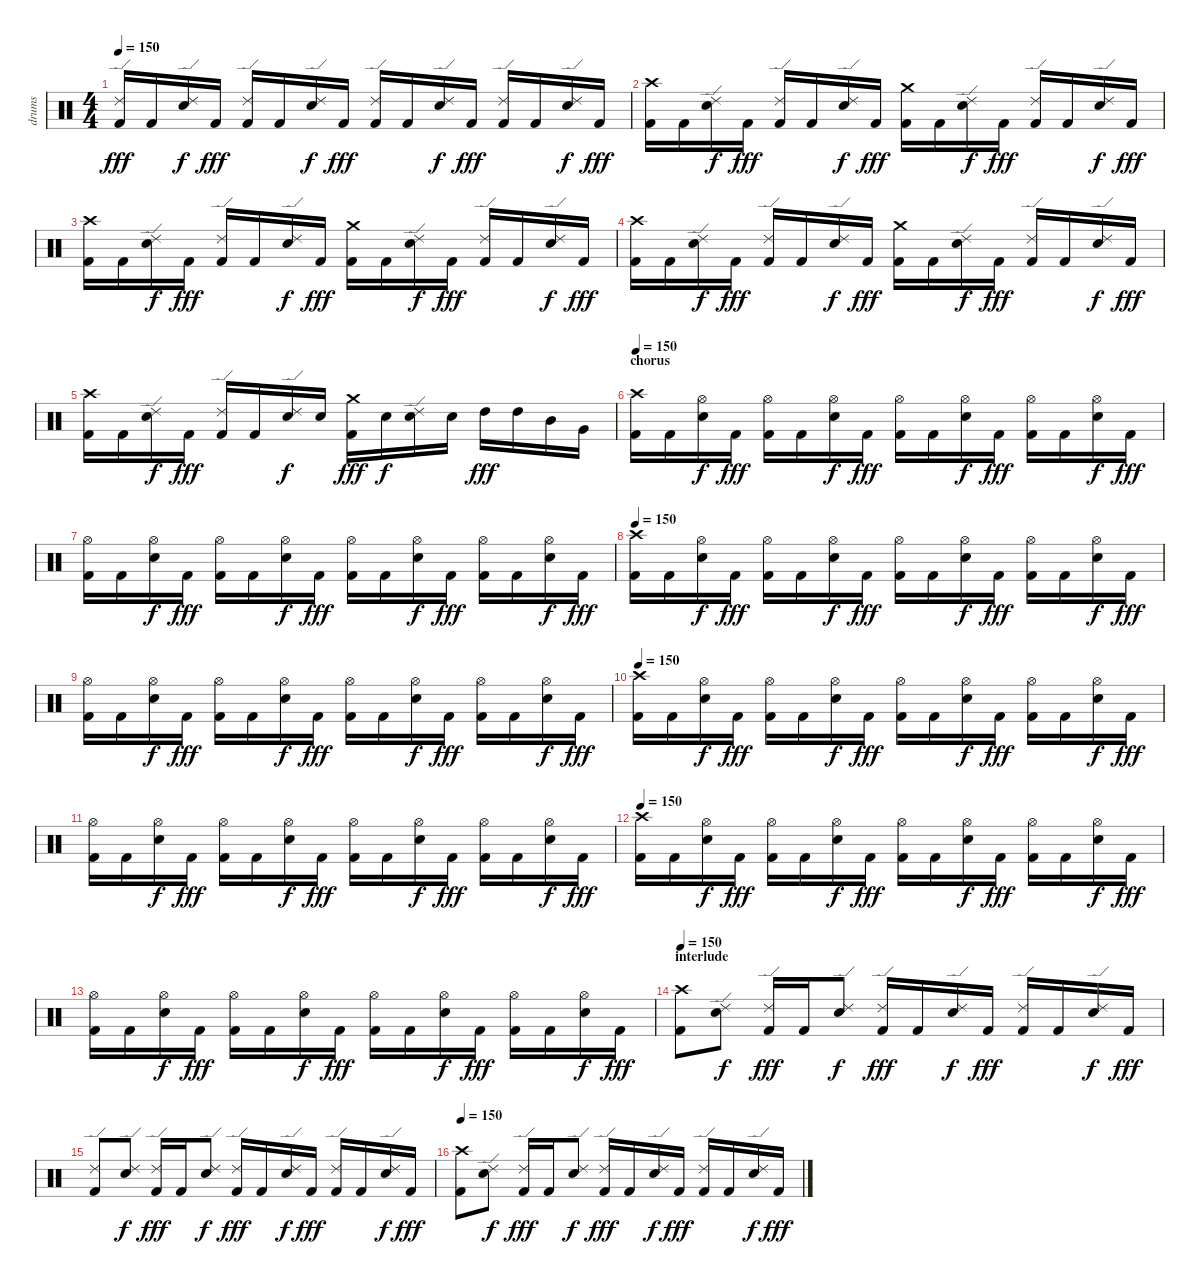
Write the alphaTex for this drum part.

\track ("drums" "drums") {instrument percussion}
\staff {score}
\articulation defaults
\ts (4 4)
\tempo 150
\clef neutral
\ks c
("Ride (edge) 2" "Kick (hit) 2").16{dy fff} "Kick (hit) 2".16 ("Ride (edge) 2" "Snare (hit) 2").16{dy f} "Kick (hit) 2".16{dy fff} ("Ride (edge) 2" "Kick (hit) 2").16 "Kick (hit) 2".16 ("Ride (edge) 2" "Snare (hit) 2").16{dy f} "Kick (hit) 2".16{dy fff} ("Ride (edge) 2" "Kick (hit) 2").16 "Kick (hit) 2".16 ("Ride (edge) 2" "Snare (hit) 2").16{dy f} "Kick (hit) 2".16{dy fff} ("Ride (edge) 2" "Kick (hit) 2").16 "Kick (hit) 2".16 ("Ride (edge) 2" "Snare (hit) 2").16{dy f} "Kick (hit) 2".16{dy fff} |
("Crash high (hit)" "Kick (hit) 2").16 "Kick (hit) 2".16 ("Ride (edge) 2" "Snare (hit) 2").16{dy f} "Kick (hit) 2".16{dy fff} ("Ride (edge) 2" "Kick (hit) 2").16 "Kick (hit) 2".16 ("Ride (edge) 2" "Snare (hit) 2").16{dy f} "Kick (hit) 2".16{dy fff} ("Crash medium (hit)" "Kick (hit) 2").16 "Kick (hit) 2".16 ("Ride (edge) 2" "Snare (hit) 2").16{dy f} "Kick (hit) 2".16{dy fff} ("Ride (edge) 2" "Kick (hit) 2").16 "Kick (hit) 2".16 ("Ride (edge) 2" "Snare (hit) 2").16{dy f} "Kick (hit) 2".16{dy fff} |
("Crash high (hit)" "Kick (hit) 2").16 "Kick (hit) 2".16 ("Ride (edge) 2" "Snare (hit) 2").16{dy f} "Kick (hit) 2".16{dy fff} ("Ride (edge) 2" "Kick (hit) 2").16 "Kick (hit) 2".16 ("Ride (edge) 2" "Snare (hit) 2").16{dy f} "Kick (hit) 2".16{dy fff} ("Crash medium (hit)" "Kick (hit) 2").16 "Kick (hit) 2".16 ("Ride (edge) 2" "Snare (hit) 2").16{dy f} "Kick (hit) 2".16{dy fff} ("Ride (edge) 2" "Kick (hit) 2").16 "Kick (hit) 2".16 ("Ride (edge) 2" "Snare (hit) 2").16{dy f} "Kick (hit) 2".16{dy fff} |
("Crash high (hit)" "Kick (hit) 2").16 "Kick (hit) 2".16 ("Ride (edge) 2" "Snare (hit) 2").16{dy f} "Kick (hit) 2".16{dy fff} ("Ride (edge) 2" "Kick (hit) 2").16 "Kick (hit) 2".16 ("Ride (edge) 2" "Snare (hit) 2").16{dy f} "Kick (hit) 2".16{dy fff} ("Crash medium (hit)" "Kick (hit) 2").16 "Kick (hit) 2".16 ("Ride (edge) 2" "Snare (hit) 2").16{dy f} "Kick (hit) 2".16{dy fff} ("Ride (edge) 2" "Kick (hit) 2").16 "Kick (hit) 2".16 ("Ride (edge) 2" "Snare (hit) 2").16{dy f} "Kick (hit) 2".16{dy fff} |
("Crash high (hit)" "Kick (hit) 2").16 "Kick (hit) 2".16 ("Ride (edge) 2" "Snare (hit) 2").16{dy f} "Kick (hit) 2".16{dy fff} ("Ride (edge) 2" "Kick (hit) 2").16 "Kick (hit) 2".16 ("Ride (edge) 2" "Snare (hit) 2").16{dy f} "Snare (hit) 2".16 ("Crash medium (hit)" "Kick (hit) 2").16{dy fff} "Snare (hit) 2".16{dy f} ("Ride (edge) 2" "Snare (hit) 2").16 "Snare (hit) 2".16 "High Tom (hit)".16{dy fff} "High Tom (hit)".16 "Mid Tom (hit)".16 "Very Low Tom (hit)".16 |
\section ("" "chorus")
\tempo 150
("Crash high (hit)" "Kick (hit) 2").16 "Kick (hit) 2".16 ("Hi-Hat (open)" "Snare (hit) 2").16{dy f} "Kick (hit) 2".16{dy fff} ("Hi-Hat (open)" "Kick (hit) 2").16 "Kick (hit) 2".16 ("Hi-Hat (open)" "Snare (hit) 2").16{dy f} "Kick (hit) 2".16{dy fff} ("Hi-Hat (open)" "Kick (hit) 2").16 "Kick (hit) 2".16 ("Hi-Hat (open)" "Snare (hit) 2").16{dy f} "Kick (hit) 2".16{dy fff} ("Hi-Hat (open)" "Kick (hit) 2").16 "Kick (hit) 2".16 ("Hi-Hat (open)" "Snare (hit) 2").16{dy f} "Kick (hit) 2".16{dy fff} |
("Hi-Hat (open)" "Kick (hit) 2").16 "Kick (hit) 2".16 ("Hi-Hat (open)" "Snare (hit) 2").16{dy f} "Kick (hit) 2".16{dy fff} ("Hi-Hat (open)" "Kick (hit) 2").16 "Kick (hit) 2".16 ("Hi-Hat (open)" "Snare (hit) 2").16{dy f} "Kick (hit) 2".16{dy fff} ("Hi-Hat (open)" "Kick (hit) 2").16 "Kick (hit) 2".16 ("Hi-Hat (open)" "Snare (hit) 2").16{dy f} "Kick (hit) 2".16{dy fff} ("Hi-Hat (open)" "Kick (hit) 2").16 "Kick (hit) 2".16 ("Hi-Hat (open)" "Snare (hit) 2").16{dy f} "Kick (hit) 2".16{dy fff} |
\tempo 150
("Crash high (hit)" "Kick (hit) 2").16 "Kick (hit) 2".16 ("Hi-Hat (open)" "Snare (hit) 2").16{dy f} "Kick (hit) 2".16{dy fff} ("Hi-Hat (open)" "Kick (hit) 2").16 "Kick (hit) 2".16 ("Hi-Hat (open)" "Snare (hit) 2").16{dy f} "Kick (hit) 2".16{dy fff} ("Hi-Hat (open)" "Kick (hit) 2").16 "Kick (hit) 2".16 ("Hi-Hat (open)" "Snare (hit) 2").16{dy f} "Kick (hit) 2".16{dy fff} ("Hi-Hat (open)" "Kick (hit) 2").16 "Kick (hit) 2".16 ("Hi-Hat (open)" "Snare (hit) 2").16{dy f} "Kick (hit) 2".16{dy fff} |
("Hi-Hat (open)" "Kick (hit) 2").16 "Kick (hit) 2".16 ("Hi-Hat (open)" "Snare (hit) 2").16{dy f} "Kick (hit) 2".16{dy fff} ("Hi-Hat (open)" "Kick (hit) 2").16 "Kick (hit) 2".16 ("Hi-Hat (open)" "Snare (hit) 2").16{dy f} "Kick (hit) 2".16{dy fff} ("Hi-Hat (open)" "Kick (hit) 2").16 "Kick (hit) 2".16 ("Hi-Hat (open)" "Snare (hit) 2").16{dy f} "Kick (hit) 2".16{dy fff} ("Hi-Hat (open)" "Kick (hit) 2").16 "Kick (hit) 2".16 ("Hi-Hat (open)" "Snare (hit) 2").16{dy f} "Kick (hit) 2".16{dy fff} |
\tempo 150
("Crash high (hit)" "Kick (hit) 2").16 "Kick (hit) 2".16 ("Hi-Hat (open)" "Snare (hit) 2").16{dy f} "Kick (hit) 2".16{dy fff} ("Hi-Hat (open)" "Kick (hit) 2").16 "Kick (hit) 2".16 ("Hi-Hat (open)" "Snare (hit) 2").16{dy f} "Kick (hit) 2".16{dy fff} ("Hi-Hat (open)" "Kick (hit) 2").16 "Kick (hit) 2".16 ("Hi-Hat (open)" "Snare (hit) 2").16{dy f} "Kick (hit) 2".16{dy fff} ("Hi-Hat (open)" "Kick (hit) 2").16 "Kick (hit) 2".16 ("Hi-Hat (open)" "Snare (hit) 2").16{dy f} "Kick (hit) 2".16{dy fff} |
("Hi-Hat (open)" "Kick (hit) 2").16 "Kick (hit) 2".16 ("Hi-Hat (open)" "Snare (hit) 2").16{dy f} "Kick (hit) 2".16{dy fff} ("Hi-Hat (open)" "Kick (hit) 2").16 "Kick (hit) 2".16 ("Hi-Hat (open)" "Snare (hit) 2").16{dy f} "Kick (hit) 2".16{dy fff} ("Hi-Hat (open)" "Kick (hit) 2").16 "Kick (hit) 2".16 ("Hi-Hat (open)" "Snare (hit) 2").16{dy f} "Kick (hit) 2".16{dy fff} ("Hi-Hat (open)" "Kick (hit) 2").16 "Kick (hit) 2".16 ("Hi-Hat (open)" "Snare (hit) 2").16{dy f} "Kick (hit) 2".16{dy fff} |
\tempo 150
("Crash high (hit)" "Kick (hit) 2").16 "Kick (hit) 2".16 ("Hi-Hat (open)" "Snare (hit) 2").16{dy f} "Kick (hit) 2".16{dy fff} ("Hi-Hat (open)" "Kick (hit) 2").16 "Kick (hit) 2".16 ("Hi-Hat (open)" "Snare (hit) 2").16{dy f} "Kick (hit) 2".16{dy fff} ("Hi-Hat (open)" "Kick (hit) 2").16 "Kick (hit) 2".16 ("Hi-Hat (open)" "Snare (hit) 2").16{dy f} "Kick (hit) 2".16{dy fff} ("Hi-Hat (open)" "Kick (hit) 2").16 "Kick (hit) 2".16 ("Hi-Hat (open)" "Snare (hit) 2").16{dy f} "Kick (hit) 2".16{dy fff} |
("Hi-Hat (open)" "Kick (hit) 2").16 "Kick (hit) 2".16 ("Hi-Hat (open)" "Snare (hit) 2").16{dy f} "Kick (hit) 2".16{dy fff} ("Hi-Hat (open)" "Kick (hit) 2").16 "Kick (hit) 2".16 ("Hi-Hat (open)" "Snare (hit) 2").16{dy f} "Kick (hit) 2".16{dy fff} ("Hi-Hat (open)" "Kick (hit) 2").16 "Kick (hit) 2".16 ("Hi-Hat (open)" "Snare (hit) 2").16{dy f} "Kick (hit) 2".16{dy fff} ("Hi-Hat (open)" "Kick (hit) 2").16 "Kick (hit) 2".16 ("Hi-Hat (open)" "Snare (hit) 2").16{dy f} "Kick (hit) 2".16{dy fff} |
\section ("" "interlude")
\tempo 150
("Crash high (hit)" "Kick (hit) 2").8 ("Ride (edge) 2" "Snare (hit) 2").8{dy f} ("Ride (edge) 2" "Kick (hit) 2").16{dy fff} "Kick (hit) 2".16 ("Ride (edge) 2" "Snare (hit) 2").8{dy f} ("Ride (edge) 2" "Kick (hit) 2").16{dy fff} "Kick (hit) 2".16 ("Ride (edge) 2" "Snare (hit) 2").16{dy f} "Kick (hit) 2".16{dy fff} ("Ride (edge) 2" "Kick (hit) 2").16 "Kick (hit) 2".16 ("Ride (edge) 2" "Snare (hit) 2").16{dy f} "Kick (hit) 2".16{dy fff} |
("Ride (edge) 2" "Kick (hit) 2").8 ("Ride (edge) 2" "Snare (hit) 2").8{dy f} ("Ride (edge) 2" "Kick (hit) 2").16{dy fff} "Kick (hit) 2".16 ("Ride (edge) 2" "Snare (hit) 2").8{dy f} ("Ride (edge) 2" "Kick (hit) 2").16{dy fff} "Kick (hit) 2".16 ("Ride (edge) 2" "Snare (hit) 2").16{dy f} "Kick (hit) 2".16{dy fff} ("Ride (edge) 2" "Kick (hit) 2").16 "Kick (hit) 2".16 ("Ride (edge) 2" "Snare (hit) 2").16{dy f} "Kick (hit) 2".16{dy fff} |
\tempo 150
("Crash high (hit)" "Kick (hit) 2").8 ("Ride (edge) 2" "Snare (hit) 2").8{dy f} ("Ride (edge) 2" "Kick (hit) 2").16{dy fff} "Kick (hit) 2".16 ("Ride (edge) 2" "Snare (hit) 2").8{dy f} ("Ride (edge) 2" "Kick (hit) 2").16{dy fff} "Kick (hit) 2".16 ("Ride (edge) 2" "Snare (hit) 2").16{dy f} "Kick (hit) 2".16{dy fff} ("Ride (edge) 2" "Kick (hit) 2").16 "Kick (hit) 2".16 ("Ride (edge) 2" "Snare (hit) 2").16{dy f} "Kick (hit) 2".16{dy fff}
